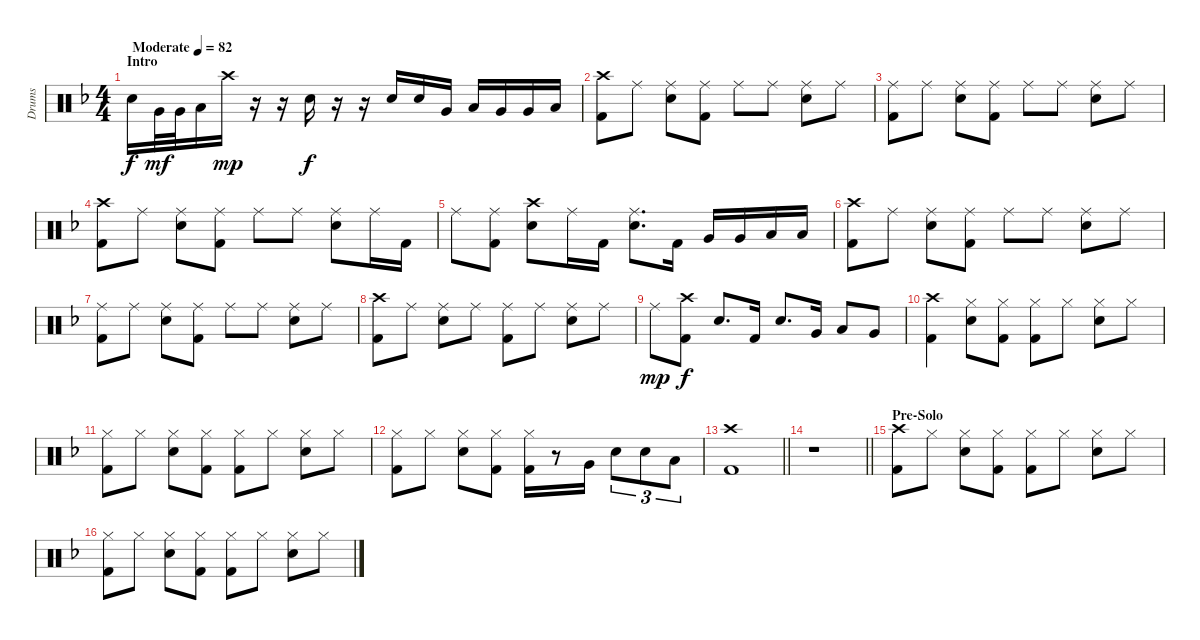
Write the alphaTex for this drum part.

\track ("Drums" "Drums") {instrument percussion}
\staff {score}
\articulation defaults
\ts (4 4)
\section ("" "Intro")
\tempo (82 "Moderate")
\clef neutral
\ks dminor "Electric Snare (hit)".16{dy f} "Very Low Tom (hit)".32{dy mf} "Very Low Tom (hit)".32 "Low Floor Tom (hit)".16 "Crash high (hit)".16{dy mp}
r.16 r.16 "Electric Snare (hit)".16{dy f} r.16 r.16 "Electric Snare (hit)".16 "Electric Snare (hit)".16 "Very Low Tom (hit)".16 "Low Tom (hit)".16 "Very Low Tom (hit)".16 "Very Low Tom (hit)".16 "Low Floor Tom (hit)".16 |
("Crash high (hit)" "Kick (hit) 2").8 "Ride (middle)".8 ("Ride (middle)" "Electric Snare (hit)").8 ("Ride (middle)" "Kick (hit) 2").8 "Ride (middle)".8 "Ride (middle)".8 ("Ride (middle)" "Electric Snare (hit)").8 "Ride (middle)".8 |
("Ride (middle)" "Kick (hit) 2").8 "Ride (middle)".8 ("Ride (middle)" "Electric Snare (hit)").8 ("Ride (middle)" "Kick (hit) 2").8 "Ride (middle)".8 "Ride (middle)".8 ("Ride (middle)" "Electric Snare (hit)").8 "Ride (middle)".8 |
("Crash high (hit)" "Kick (hit) 2").8 "Ride (middle)".8 ("Ride (middle)" "Electric Snare (hit)").8 ("Ride (middle)" "Kick (hit) 2").8 "Ride (middle)".8 "Ride (middle)".8 ("Ride (middle)" "Electric Snare (hit)").8 "Ride (middle)".16 "Kick (hit) 2".16 |
"Ride (middle)".8 ("Ride (middle)" "Kick (hit) 2").8 ("Crash high (hit)" "Electric Snare (hit)").8 "Ride (middle)".16 "Kick (hit) 2".16 ("Ride (middle)" "Electric Snare (hit)").8{d} "Kick (hit) 2".16 "Very Low Tom (hit)".16 "Very Low Tom (hit)".16 "Low Floor Tom (hit)".16 "Low Floor Tom (hit)".16 |
("Crash high (hit)" "Kick (hit) 2").8 "Ride (middle)".8 ("Ride (middle)" "Electric Snare (hit)").8 ("Ride (middle)" "Kick (hit) 2").8 "Ride (middle)".8 "Ride (middle)".8 ("Ride (middle)" "Electric Snare (hit)").8 "Ride (middle)".8 |
("Ride (middle)" "Kick (hit) 2").8 "Ride (middle)".8 ("Ride (middle)" "Electric Snare (hit)").8 ("Ride (middle)" "Kick (hit) 2").8 "Ride (middle)".8 "Ride (middle)".8 ("Ride (middle)" "Electric Snare (hit)").8 "Ride (middle)".8 |
("Crash high (hit)" "Kick (hit) 2").8 "Ride (middle)".8 ("Ride (middle)" "Electric Snare (hit)").8 "Ride (middle)".8 ("Ride (middle)" "Kick (hit) 2").8 "Ride (middle)".8 ("Ride (middle)" "Electric Snare (hit)").8 "Ride (middle)".8 |
"Ride (middle)".8{dy mp} ("Crash high (hit)" "Kick (hit) 2").8{dy f} "Electric Snare (hit)".8{d} "Kick (hit) 2".16 "Electric Snare (hit)".8{d} "Very Low Tom (hit)".16 "Low Tom (hit)".8 "Very Low Tom (hit)".8 |
("Crash high (hit)" "Kick (hit) 2").4 ("Hi-Hat (closed)" "Electric Snare (hit)").8 ("Hi-Hat (closed)" "Kick (hit) 2").8 ("Hi-Hat (closed)" "Kick (hit) 2").8 "Hi-Hat (closed)".8 ("Hi-Hat (closed)" "Electric Snare (hit)").8 "Hi-Hat (closed)".8 |
("Hi-Hat (closed)" "Kick (hit) 2").8 "Hi-Hat (closed)".8 ("Hi-Hat (closed)" "Electric Snare (hit)").8 ("Hi-Hat (closed)" "Kick (hit) 2").8 ("Hi-Hat (closed)" "Kick (hit) 2").8 "Hi-Hat (closed)".8 ("Hi-Hat (closed)" "Electric Snare (hit)").8 "Hi-Hat (closed)".8 |
("Hi-Hat (closed)" "Kick (hit) 2").8 "Hi-Hat (closed)".8 ("Hi-Hat (closed)" "Electric Snare (hit)").8 ("Hi-Hat (closed)" "Kick (hit) 2").8 ("Hi-Hat (closed)" "Kick (hit) 2").16 r.8 "Very Low Tom (hit)".16 "Electric Snare (hit)".8{tu (3 2)} "Electric Snare (hit)".8{tu (3 2)} "Low Tom (hit)".8{tu (3 2)} |
\barLineRight lightlight
("Crash high (hit)" "Kick (hit) 2").1 |
\barLineRight lightlight
r.1{volume 0} |
\section ("" "Pre-Solo")
("Crash high (hit)" "Kick (hit) 2").8{volume 15} "Hi-Hat (closed)".8 ("Hi-Hat (closed)" "Electric Snare (hit)").8 ("Hi-Hat (closed)" "Kick (hit) 2").8 ("Hi-Hat (closed)" "Kick (hit) 2").8 "Hi-Hat (closed)".8 ("Hi-Hat (closed)" "Electric Snare (hit)").8 "Hi-Hat (closed)".8 |
("Hi-Hat (closed)" "Kick (hit) 2").8 "Hi-Hat (closed)".8 ("Hi-Hat (closed)" "Electric Snare (hit)").8 ("Hi-Hat (closed)" "Kick (hit) 2").8 ("Hi-Hat (closed)" "Kick (hit) 2").8 "Hi-Hat (closed)".8 ("Hi-Hat (closed)" "Electric Snare (hit)").8 "Hi-Hat (closed)".8
